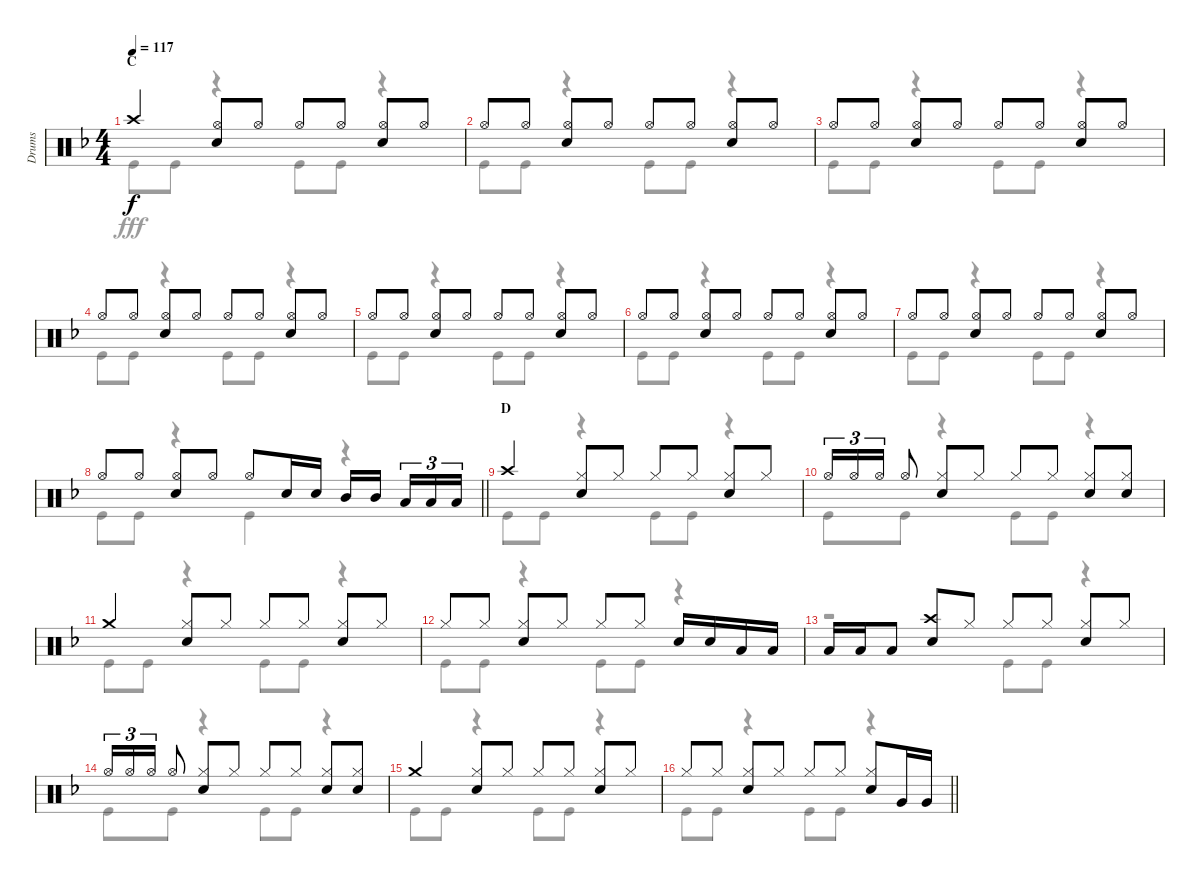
\track ("Drums" "Drums") {instrument percussion}
\staff {score}
\articulation defaults
\voice
\ts (4 4)
\section ("" "C")
\tempo 117
\clef neutral
\ks f "Crash high (hit)".4{dy f}
("Hi-Hat (open)" "Snare (hit) 2").8 "Hi-Hat (open)".8 "Hi-Hat (open)".8 "Hi-Hat (open)".8 ("Hi-Hat (open)" "Snare (hit) 2").8 "Hi-Hat (open)".8 |
"Hi-Hat (open)".8 "Hi-Hat (open)".8 ("Hi-Hat (open)" "Snare (hit) 2").8 "Hi-Hat (open)".8 "Hi-Hat (open)".8 "Hi-Hat (open)".8 ("Hi-Hat (open)" "Snare (hit) 2").8 "Hi-Hat (open)".8 |
"Hi-Hat (open)".8 "Hi-Hat (open)".8 ("Hi-Hat (open)" "Snare (hit) 2").8 "Hi-Hat (open)".8 "Hi-Hat (open)".8 "Hi-Hat (open)".8 ("Hi-Hat (open)" "Snare (hit) 2").8 "Hi-Hat (open)".8 |
"Hi-Hat (open)".8 "Hi-Hat (open)".8 ("Hi-Hat (open)" "Snare (hit) 2").8 "Hi-Hat (open)".8 "Hi-Hat (open)".8 "Hi-Hat (open)".8 ("Hi-Hat (open)" "Snare (hit) 2").8 "Hi-Hat (open)".8 |
"Hi-Hat (open)".8 "Hi-Hat (open)".8 ("Hi-Hat (open)" "Snare (hit) 2").8 "Hi-Hat (open)".8 "Hi-Hat (open)".8 "Hi-Hat (open)".8 ("Hi-Hat (open)" "Snare (hit) 2").8 "Hi-Hat (open)".8 |
"Hi-Hat (open)".8 "Hi-Hat (open)".8 ("Hi-Hat (open)" "Snare (hit) 2").8 "Hi-Hat (open)".8 "Hi-Hat (open)".8 "Hi-Hat (open)".8 ("Hi-Hat (open)" "Snare (hit) 2").8 "Hi-Hat (open)".8 |
"Hi-Hat (open)".8 "Hi-Hat (open)".8 ("Hi-Hat (open)" "Snare (hit) 2").8 "Hi-Hat (open)".8 "Hi-Hat (open)".8 "Hi-Hat (open)".8 ("Hi-Hat (open)" "Snare (hit) 2").8 "Hi-Hat (open)".8 |
\barLineRight lightlight "Hi-Hat (open)".8 "Hi-Hat (open)".8
("Hi-Hat (open)" "Snare (hit) 2").8 "Hi-Hat (open)".8 "Hi-Hat (open)".8 "Snare (hit) 2".16 "Snare (hit) 2".16 "Mid Tom (hit)".16 "Mid Tom (hit)".16{beam splitsecondary} "Low Tom (hit)".16{tu (3 2)} "Low Tom (hit)".16{tu (3 2)} "Low Tom (hit)".16{tu (3 2)} |
\section ("" "D")
"Crash high (hit)".4 ("Hi-Hat (closed)" "Snare (hit) 2").8 "Hi-Hat (closed)".8 "Hi-Hat (closed)".8 "Hi-Hat (closed)".8 ("Hi-Hat (closed)" "Snare (hit) 2").8 "Hi-Hat (closed)".8 |
"Hi-Hat (open)".16{tu (3 2)} "Hi-Hat (open)".16{tu (3 2)} "Hi-Hat (open)".16{tu (3 2)} "Hi-Hat (open)".8 ("Hi-Hat (closed)" "Snare (hit) 2").8 "Hi-Hat (closed)".8 "Hi-Hat (closed)".8 "Hi-Hat (closed)".8 ("Hi-Hat (closed)" "Snare (hit) 2").8 ("Hi-Hat (closed)" "Snare (hit) 2").8 |
"Crash medium (hit)".4 ("Hi-Hat (closed)" "Snare (hit) 2").8 "Hi-Hat (closed)".8 "Hi-Hat (closed)".8 "Hi-Hat (closed)".8 ("Hi-Hat (closed)" "Snare (hit) 2").8 "Hi-Hat (closed)".8 |
"Hi-Hat (closed)".8 "Hi-Hat (closed)".8 ("Hi-Hat (closed)" "Snare (hit) 2").8 "Hi-Hat (closed)".8 "Hi-Hat (closed)".8 "Hi-Hat (closed)".8 "Snare (hit) 2".16 "Snare (hit) 2".16 "Low Tom (hit)".16 "Low Tom (hit)".16 |
"Low Tom (hit)".16 "Low Tom (hit)".16 "Low Tom (hit)".8 ("Crash high (hit)" "Snare (hit) 2").8 "Hi-Hat (closed)".8 "Hi-Hat (closed)".8 "Hi-Hat (closed)".8 ("Hi-Hat (closed)" "Snare (hit) 2").8 "Hi-Hat (closed)".8 |
"Hi-Hat (open)".16{tu (3 2)} "Hi-Hat (open)".16{tu (3 2)} "Hi-Hat (open)".16{tu (3 2)} "Hi-Hat (open)".8 ("Hi-Hat (closed)" "Snare (hit) 2").8 "Hi-Hat (closed)".8 "Hi-Hat (closed)".8 "Hi-Hat (closed)".8 ("Hi-Hat (closed)" "Snare (hit) 2").8 ("Hi-Hat (closed)" "Snare (hit) 2").8 |
"Crash medium (hit)".4 ("Hi-Hat (closed)" "Snare (hit) 2").8 "Hi-Hat (closed)".8 "Hi-Hat (closed)".8 "Hi-Hat (closed)".8 ("Hi-Hat (closed)" "Snare (hit) 2").8 "Hi-Hat (closed)".8 |
\barLineRight lightlight "Hi-Hat (closed)".8 "Hi-Hat (closed)".8
("Hi-Hat (closed)" "Snare (hit) 2").8 "Hi-Hat (closed)".8 "Hi-Hat (closed)".8 "Hi-Hat (closed)".8 ("Hi-Hat (closed)" "Snare (hit) 2").8 "Very Low Tom (hit)".16 "Very Low Tom (hit)".16
\voice
\clef neutral
\ottava regular
\simile none
\ks f "Kick (hit)".8{dy fff} "Kick (hit)".8
r.4 "Kick (hit)".8 "Kick (hit)".8 r.4 |
"Kick (hit)".8 "Kick (hit)".8 r.4 "Kick (hit)".8 "Kick (hit)".8 r.4 |
"Kick (hit)".8 "Kick (hit)".8 r.4 "Kick (hit)".8 "Kick (hit)".8 r.4 |
"Kick (hit)".8 "Kick (hit)".8 r.4 "Kick (hit)".8 "Kick (hit)".8 r.4 |
"Kick (hit)".8 "Kick (hit)".8 r.4 "Kick (hit)".8 "Kick (hit)".8 r.4 |
"Kick (hit)".8 "Kick (hit)".8 r.4 "Kick (hit)".8 "Kick (hit)".8 r.4 |
"Kick (hit)".8 "Kick (hit)".8 r.4 "Kick (hit)".8 "Kick (hit)".8 r.4 |
\barLineRight lightlight "Kick (hit)".8 "Kick (hit)".8
r.4 "Kick (hit)".4 r.4 |
"Kick (hit)".8 "Kick (hit)".8 r.4 "Kick (hit)".8 "Kick (hit)".8 r.4 |
"Kick (hit)".8 "Kick (hit)".8 r.4 "Kick (hit)".8 "Kick (hit)".8 r.4 |
"Kick (hit)".8 "Kick (hit)".8 r.4 "Kick (hit)".8 "Kick (hit)".8 r.4 |
"Kick (hit)".8 "Kick (hit)".8 r.4 "Kick (hit)".8 "Kick (hit)".8 r.4 |
r.2 "Kick (hit)".8 "Kick (hit)".8 r.4 |
"Kick (hit)".8 "Kick (hit)".8 r.4 "Kick (hit)".8 "Kick (hit)".8 r.4 |
"Kick (hit)".8 "Kick (hit)".8 r.4 "Kick (hit)".8 "Kick (hit)".8 r.4 |
\barLineRight lightlight "Kick (hit)".8 "Kick (hit)".8
r.4 "Kick (hit)".8 "Kick (hit)".8 r.4
